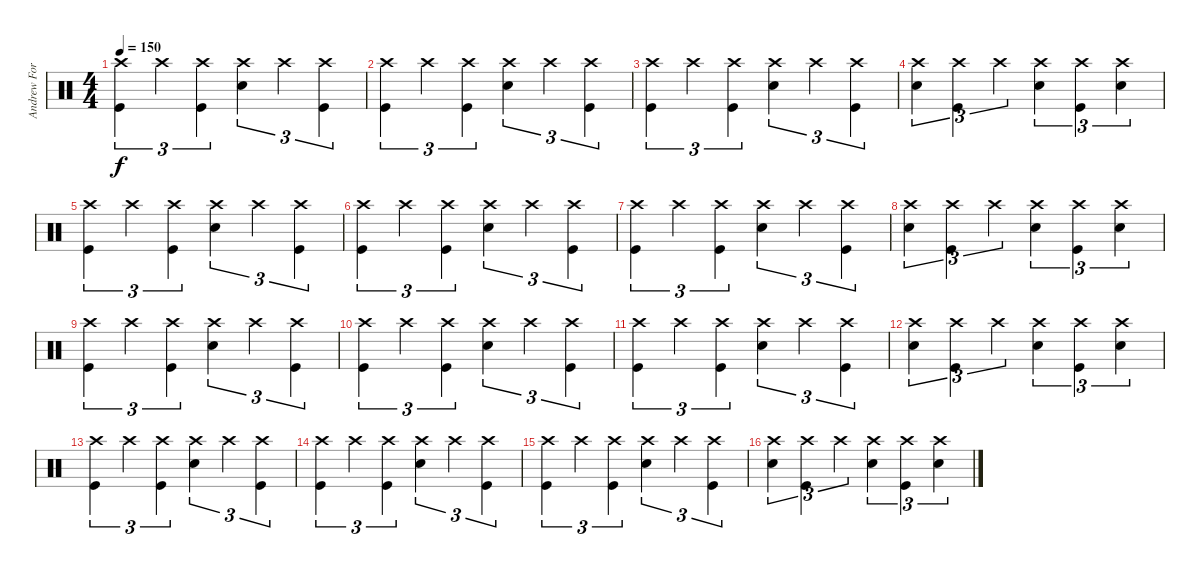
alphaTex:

\track ("Andrew Forsman" "Andrew For") {instrument percussion}
\staff {score}
\articulation defaults
\ts (4 4)
\tempo 150
\clef neutral
\ks c
("Crash high (hit)" "Kick (hit)").4{tu (3 2) dy f} "Crash high (hit)".4{tu (3 2)} ("Crash high (hit)" "Kick (hit)").4{tu (3 2)} ("Crash high (hit)" "Snare (hit) 2").4{tu (3 2)} "Crash high (hit)".4{tu (3 2)} ("Crash high (hit)" "Kick (hit)").4{tu (3 2)} |
("Crash high (hit)" "Kick (hit)").4{tu (3 2)} "Crash high (hit)".4{tu (3 2)} ("Crash high (hit)" "Kick (hit)").4{tu (3 2)} ("Crash high (hit)" "Snare (hit) 2").4{tu (3 2)} "Crash high (hit)".4{tu (3 2)} ("Crash high (hit)" "Kick (hit)").4{tu (3 2)} |
("Crash high (hit)" "Kick (hit)").4{tu (3 2)} "Crash high (hit)".4{tu (3 2)} ("Crash high (hit)" "Kick (hit)").4{tu (3 2)} ("Crash high (hit)" "Snare (hit) 2").4{tu (3 2)} "Crash high (hit)".4{tu (3 2)} ("Crash high (hit)" "Kick (hit)").4{tu (3 2)} |
("Crash high (hit)" "Snare (hit) 2").4{tu (3 2)} ("Crash high (hit)" "Kick (hit)").4{tu (3 2)} "Crash high (hit)".4{tu (3 2)} ("Crash high (hit)" "Snare (hit) 2").4{tu (3 2)} ("Crash high (hit)" "Kick (hit)").4{tu (3 2)} ("Crash high (hit)" "Snare (hit) 2").4{tu (3 2)} |
("Crash high (hit)" "Kick (hit)").4{tu (3 2)} "Crash high (hit)".4{tu (3 2)} ("Crash high (hit)" "Kick (hit)").4{tu (3 2)} ("Crash high (hit)" "Snare (hit) 2").4{tu (3 2)} "Crash high (hit)".4{tu (3 2)} ("Crash high (hit)" "Kick (hit)").4{tu (3 2)} |
("Crash high (hit)" "Kick (hit)").4{tu (3 2)} "Crash high (hit)".4{tu (3 2)} ("Crash high (hit)" "Kick (hit)").4{tu (3 2)} ("Crash high (hit)" "Snare (hit) 2").4{tu (3 2)} "Crash high (hit)".4{tu (3 2)} ("Crash high (hit)" "Kick (hit)").4{tu (3 2)} |
("Crash high (hit)" "Kick (hit)").4{tu (3 2)} "Crash high (hit)".4{tu (3 2)} ("Crash high (hit)" "Kick (hit)").4{tu (3 2)} ("Crash high (hit)" "Snare (hit) 2").4{tu (3 2)} "Crash high (hit)".4{tu (3 2)} ("Crash high (hit)" "Kick (hit)").4{tu (3 2)} |
("Crash high (hit)" "Snare (hit) 2").4{tu (3 2)} ("Crash high (hit)" "Kick (hit)").4{tu (3 2)} "Crash high (hit)".4{tu (3 2)} ("Crash high (hit)" "Snare (hit) 2").4{tu (3 2)} ("Crash high (hit)" "Kick (hit)").4{tu (3 2)} ("Crash high (hit)" "Snare (hit) 2").4{tu (3 2)} |
("Crash high (hit)" "Kick (hit)").4{tu (3 2)} "Crash high (hit)".4{tu (3 2)} ("Crash high (hit)" "Kick (hit)").4{tu (3 2)} ("Crash high (hit)" "Snare (hit) 2").4{tu (3 2)} "Crash high (hit)".4{tu (3 2)} ("Crash high (hit)" "Kick (hit)").4{tu (3 2)} |
("Crash high (hit)" "Kick (hit)").4{tu (3 2)} "Crash high (hit)".4{tu (3 2)} ("Crash high (hit)" "Kick (hit)").4{tu (3 2)} ("Crash high (hit)" "Snare (hit) 2").4{tu (3 2)} "Crash high (hit)".4{tu (3 2)} ("Crash high (hit)" "Kick (hit)").4{tu (3 2)} |
("Crash high (hit)" "Kick (hit)").4{tu (3 2)} "Crash high (hit)".4{tu (3 2)} ("Crash high (hit)" "Kick (hit)").4{tu (3 2)} ("Crash high (hit)" "Snare (hit) 2").4{tu (3 2)} "Crash high (hit)".4{tu (3 2)} ("Crash high (hit)" "Kick (hit)").4{tu (3 2)} |
("Crash high (hit)" "Snare (hit) 2").4{tu (3 2)} ("Crash high (hit)" "Kick (hit)").4{tu (3 2)} "Crash high (hit)".4{tu (3 2)} ("Crash high (hit)" "Snare (hit) 2").4{tu (3 2)} ("Crash high (hit)" "Kick (hit)").4{tu (3 2)} ("Crash high (hit)" "Snare (hit) 2").4{tu (3 2)} |
("Crash high (hit)" "Kick (hit)").4{tu (3 2)} "Crash high (hit)".4{tu (3 2)} ("Crash high (hit)" "Kick (hit)").4{tu (3 2)} ("Crash high (hit)" "Snare (hit) 2").4{tu (3 2)} "Crash high (hit)".4{tu (3 2)} ("Crash high (hit)" "Kick (hit)").4{tu (3 2)} |
("Crash high (hit)" "Kick (hit)").4{tu (3 2)} "Crash high (hit)".4{tu (3 2)} ("Crash high (hit)" "Kick (hit)").4{tu (3 2)} ("Crash high (hit)" "Snare (hit) 2").4{tu (3 2)} "Crash high (hit)".4{tu (3 2)} ("Crash high (hit)" "Kick (hit)").4{tu (3 2)} |
("Crash high (hit)" "Kick (hit)").4{tu (3 2)} "Crash high (hit)".4{tu (3 2)} ("Crash high (hit)" "Kick (hit)").4{tu (3 2)} ("Crash high (hit)" "Snare (hit) 2").4{tu (3 2)} "Crash high (hit)".4{tu (3 2)} ("Crash high (hit)" "Kick (hit)").4{tu (3 2)} |
("Crash high (hit)" "Snare (hit) 2").4{tu (3 2)} ("Crash high (hit)" "Kick (hit)").4{tu (3 2)} "Crash high (hit)".4{tu (3 2)} ("Crash high (hit)" "Snare (hit) 2").4{tu (3 2)} ("Crash high (hit)" "Kick (hit)").4{tu (3 2)} ("Crash high (hit)" "Snare (hit) 2").4{tu (3 2)}
